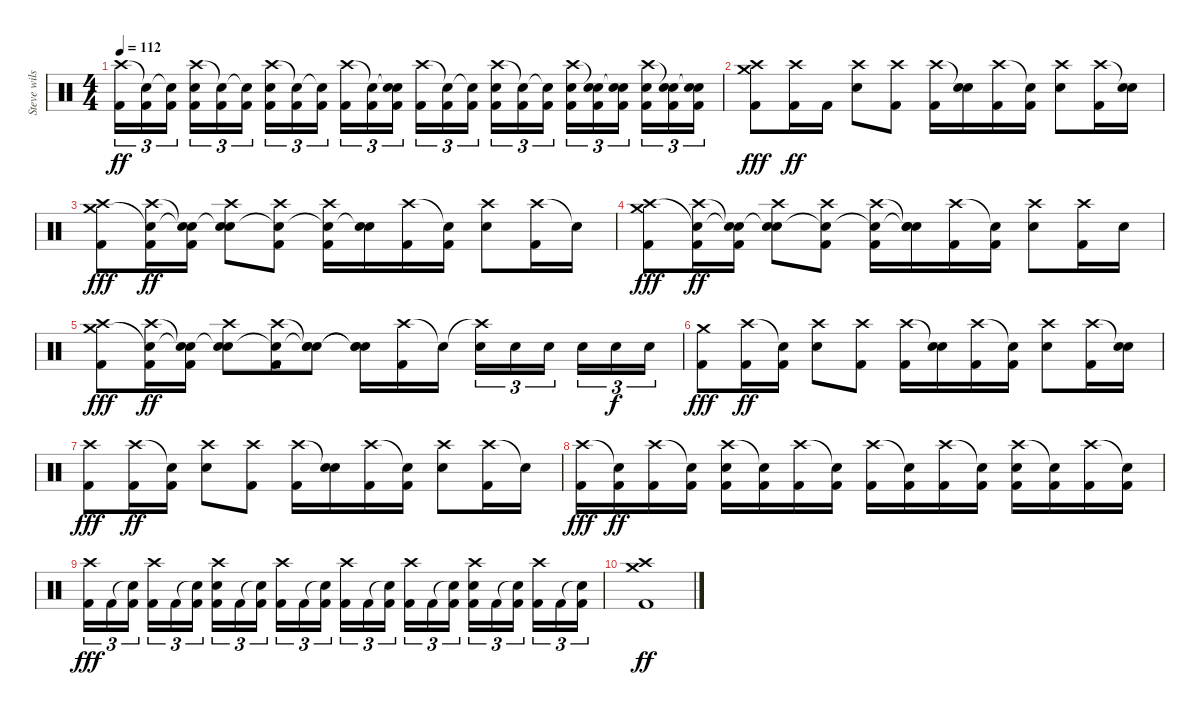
\track ("Steve wilson" "Steve wils") {instrument percussion}
\staff {score}
\articulation defaults
\ts (4 4)
\tempo 112
\clef neutral
\ks c
("Crash high (hit)" "Kick (hit) 2").16{tu (3 2) dy ff} ("Snare (hit)"{t} "Kick (hit) 2").16{tu (3 2)} ("Snare (hit)"{t} "Kick (hit) 2").16{tu (3 2) beam splitsecondary} ("Crash high (hit)" "Electric Snare (hit)" "Kick (hit) 2").16{tu (3 2)} ("Snare (hit)"{t} "Kick (hit) 2").16{tu (3 2)} ("Snare (hit)"{t} "Kick (hit) 2").16{tu (3 2)} ("Crash high (hit)" "Electric Snare (hit)" "Kick (hit) 2").16{tu (3 2)} ("Snare (hit)"{t} "Kick (hit) 2").16{tu (3 2)} ("Snare (hit)"{t} "Kick (hit) 2").16{tu (3 2) beam splitsecondary} ("Crash high (hit)" "Kick (hit) 2").16{tu (3 2)} ("Snare (hit)"{t} "Kick (hit) 2").16{tu (3 2)} ("Snare (hit)"{t} "Electric Snare (hit)" "Kick (hit) 2").16{tu (3 2)} ("Crash high (hit)" "Kick (hit) 2").16{tu (3 2)} ("Snare (hit)"{t} "Kick (hit) 2").16{tu (3 2)} ("Snare (hit)"{t} "Kick (hit) 2").16{tu (3 2) beam splitsecondary} ("Crash high (hit)" "Electric Snare (hit)" "Kick (hit) 2").16{tu (3 2)} ("Snare (hit)"{t} "Kick (hit) 2").16{tu (3 2)} ("Snare (hit)"{t} "Kick (hit) 2").16{tu (3 2)} ("Crash high (hit)" "Electric Snare (hit)" "Kick (hit) 2").16{tu (3 2)} ("Snare (hit)"{t} "Electric Snare (hit)" "Kick (hit) 2").16{tu (3 2)} ("Snare (hit)"{t} "Electric Snare (hit)" "Kick (hit) 2").16{tu (3 2) beam splitsecondary} ("Crash high (hit)" "Electric Snare (hit)" "Kick (hit) 2").16{tu (3 2)} ("Snare (hit)"{t} "Electric Snare (hit)" "Kick (hit) 2").16{tu (3 2)} ("Snare (hit)"{t} "Electric Snare (hit)" "Kick (hit) 2").16{tu (3 2)} |
("Crash high (hit)" "Crash medium (hit)" "Kick (hit) 2").8{dy fff} ("Crash high (hit)" "Kick (hit) 2").16{dy ff} "Kick (hit) 2".16 ("Crash high (hit)" "Electric Snare (hit)").8 ("Crash high (hit)" "Kick (hit) 2").8 ("Crash high (hit)" "Kick (hit) 2").16 ("Snare (hit)"{t} "Electric Snare (hit)").16 ("Crash high (hit)" "Kick (hit) 2").16 ("Snare (hit)"{t} "Kick (hit) 2").16 ("Crash high (hit)" "Electric Snare (hit)").8 ("Crash high (hit)" "Kick (hit) 2").16 ("Snare (hit)"{t} "Electric Snare (hit)").16 |
("Crash medium (hit)" "Crash high (hit)" "Kick (hit) 2").8{dy fff} ("Snare (hit)"{t} "Crash high (hit)" "Kick (hit) 2").16{dy ff} ("Snare (hit)"{t} "Snare (hit)"{t} "Kick (hit) 2").16 ("Snare (hit)"{t} "Crash high (hit)" "Electric Snare (hit)").8 ("Snare (hit)"{t} "Crash high (hit)" "Kick (hit) 2").8 ("Snare (hit)"{t} "Crash high (hit)" "Kick (hit) 2").16 ("Snare (hit)"{t} "Electric Snare (hit)").16 ("Crash high (hit)" "Kick (hit) 2").16 ("Snare (hit)"{t} "Kick (hit) 2").16 ("Crash high (hit)" "Electric Snare (hit)").8 ("Crash high (hit)" "Kick (hit) 2").16 "Snare (hit)"{t}.16 |
("Crash high (hit)" "Crash medium (hit)" "Kick (hit) 2").8{dy fff} ("Snare (hit)"{t} "Crash high (hit)" "Kick (hit) 2").16{dy ff} ("Snare (hit)"{t} "Snare (hit)"{t} "Kick (hit) 2").16 ("Snare (hit)"{t} "Crash high (hit)" "Electric Snare (hit)").8 ("Snare (hit)"{t} "Crash high (hit)" "Kick (hit) 2").8 ("Snare (hit)"{t} "Crash high (hit)" "Kick (hit) 2").16 ("Snare (hit)"{t} "Snare (hit)"{t} "Electric Snare (hit)").16 ("Crash high (hit)" "Kick (hit) 2").16 ("Snare (hit)"{t} "Kick (hit) 2").16 ("Crash high (hit)" "Electric Snare (hit)").8 ("Crash high (hit)" "Kick (hit) 2").16 "Electric Snare (hit)".16 |
("Crash medium (hit)" "Crash high (hit)" "Kick (hit) 2").8{dy fff} ("Snare (hit)"{t} "Crash high (hit)" "Kick (hit) 2").16{dy ff} ("Snare (hit)"{t} "Snare (hit)"{t} "Kick (hit) 2").16 ("Snare (hit)"{t} "Crash high (hit)" "Electric Snare (hit)").8 ("Snare (hit)"{t} "Crash high (hit)" "Kick (hit) 2").16 ("Snare (hit)"{t} "Snare (hit)"{t} "Electric Snare (hit)").8 ("Snare (hit)"{t} "Snare (hit)"{t} "Electric Snare (hit)").16 ("Crash high (hit)" "Kick (hit) 2").16 "Snare (hit)"{t}.16 ("Crash high (hit)"{t} "Electric Snare (hit)").16{tu (3 2)} "Electric Snare (hit)".16{tu (3 2)} "Electric Snare (hit)".16{tu (3 2) beam splitsecondary} "Electric Snare (hit)".16{tu (3 2)} "Electric Snare (hit)".16{tu (3 2) dy f} "Electric Snare (hit)".16{tu (3 2)} |
("Crash medium (hit)" "Kick (hit) 2").8{dy fff} ("Crash high (hit)" "Kick (hit) 2").16{dy ff} ("Snare (hit)"{t} "Kick (hit) 2").16 ("Crash high (hit)" "Electric Snare (hit)").8 ("Crash high (hit)" "Kick (hit) 2").8 ("Crash high (hit)" "Kick (hit) 2").16 ("Snare (hit)"{t} "Electric Snare (hit)").16 ("Crash high (hit)" "Kick (hit) 2").16 ("Snare (hit)"{t} "Kick (hit) 2").16 ("Crash high (hit)" "Electric Snare (hit)").8 ("Crash high (hit)" "Kick (hit) 2").16 ("Snare (hit)"{t} "Electric Snare (hit)").16 |
("Crash high (hit)" "Kick (hit) 2").8{dy fff} ("Crash high (hit)" "Kick (hit) 2").16{dy ff} ("Snare (hit)"{t} "Kick (hit) 2").16 ("Crash high (hit)" "Electric Snare (hit)").8 ("Crash high (hit)" "Kick (hit) 2").8 ("Crash high (hit)" "Kick (hit) 2").16 ("Snare (hit)"{t} "Electric Snare (hit)").16 ("Crash high (hit)" "Kick (hit) 2").16 ("Snare (hit)"{t} "Kick (hit) 2").16 ("Crash high (hit)" "Electric Snare (hit)").8 ("Crash high (hit)" "Kick (hit) 2").16 "Snare (hit)"{t}.16 |
("Crash high (hit)" "Kick (hit) 2").16{dy fff} ("Snare (hit)"{t} "Kick (hit) 2").16{dy ff} ("Crash high (hit)" "Kick (hit) 2").16 ("Snare (hit)"{t} "Kick (hit) 2").16 ("Crash high (hit)" "Electric Snare (hit)" "Kick (hit) 2").16 ("Snare (hit)"{t} "Kick (hit) 2").16 ("Crash high (hit)" "Kick (hit) 2").16 ("Snare (hit)"{t} "Kick (hit) 2").16 ("Crash high (hit)" "Kick (hit) 2").16 ("Snare (hit)"{t} "Kick (hit) 2").16 ("Crash high (hit)" "Kick (hit) 2").16 ("Snare (hit)"{t} "Kick (hit) 2").16 ("Crash high (hit)" "Electric Snare (hit)" "Kick (hit) 2").16 ("Snare (hit)"{t} "Kick (hit) 2").16 ("Crash high (hit)" "Kick (hit) 2").16 ("Snare (hit)"{t} "Kick (hit) 2").16 |
("Crash high (hit)" "Kick (hit) 2").16{tu (3 2) dy fff} "Kick (hit) 2".16{tu (3 2)} ("Snare (hit)"{t} "Kick (hit) 2").16{tu (3 2) beam splitsecondary} ("Crash high (hit)" "Kick (hit) 2").16{tu (3 2)} "Kick (hit) 2".16{tu (3 2)} ("Snare (hit)"{t} "Kick (hit) 2").16{tu (3 2)} ("Crash high (hit)" "Electric Snare (hit)" "Kick (hit) 2").16{tu (3 2)} "Kick (hit) 2".16{tu (3 2)} ("Snare (hit)"{t} "Kick (hit) 2").16{tu (3 2) beam splitsecondary} ("Crash high (hit)" "Kick (hit) 2").16{tu (3 2)} "Kick (hit) 2".16{tu (3 2)} ("Snare (hit)"{t} "Kick (hit) 2").16{tu (3 2)} ("Crash high (hit)" "Kick (hit) 2").16{tu (3 2)} "Kick (hit) 2".16{tu (3 2)} ("Snare (hit)"{t} "Kick (hit) 2").16{tu (3 2) beam splitsecondary} ("Crash high (hit)" "Kick (hit) 2").16{tu (3 2)} "Kick (hit) 2".16{tu (3 2)} ("Snare (hit)"{t} "Kick (hit) 2").16{tu (3 2)} ("Crash high (hit)" "Electric Snare (hit)" "Kick (hit) 2").16{tu (3 2)} "Kick (hit) 2".16{tu (3 2)} ("Snare (hit)"{t} "Kick (hit) 2").16{tu (3 2) beam splitsecondary} ("Crash high (hit)" "Kick (hit) 2").16{tu (3 2)} "Kick (hit) 2".16{tu (3 2)} ("Snare (hit)"{t} "Kick (hit) 2").16{tu (3 2)} |
("Crash high (hit)" "Crash medium (hit)" "Kick (hit) 2").1{dy ff}
